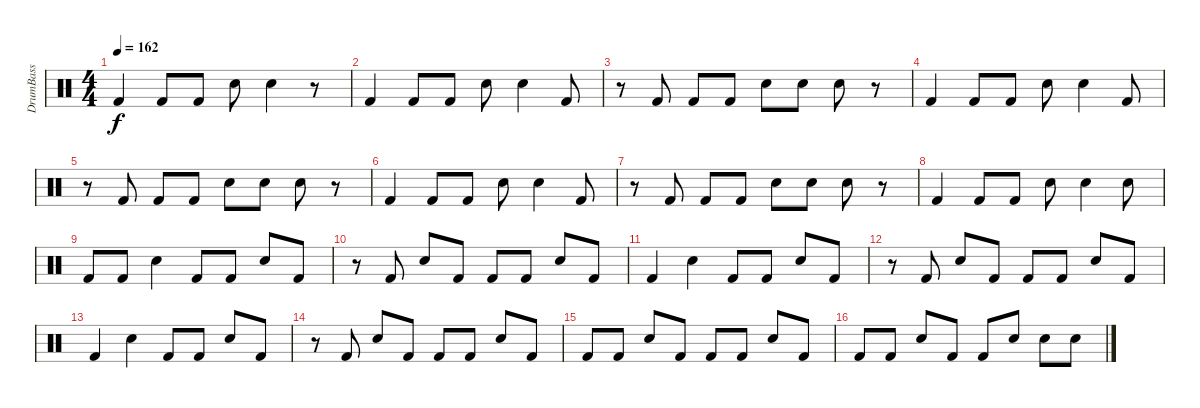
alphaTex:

\track ("DrumBass" "DrumBass") {instrument percussion}
\staff {score}
\articulation defaults
\ts (4 4)
\tempo 162
\clef neutral
\ks c "Kick (hit) 2".4{dy f} "Kick (hit) 2".8 "Kick (hit) 2".8 "Snare (hit) 2".8 "Snare (hit) 2".4
r.8 |
"Kick (hit) 2".4 "Kick (hit) 2".8 "Kick (hit) 2".8 "Snare (hit) 2".8 "Snare (hit) 2".4 "Kick (hit) 2".8 |
r.8 "Kick (hit) 2".8 "Kick (hit) 2".8 "Kick (hit) 2".8 "Snare (hit) 2".8 "Snare (hit) 2".8 "Snare (hit) 2".8 r.8 |
"Kick (hit) 2".4 "Kick (hit) 2".8 "Kick (hit) 2".8 "Snare (hit) 2".8 "Snare (hit) 2".4 "Kick (hit) 2".8 |
r.8 "Kick (hit) 2".8 "Kick (hit) 2".8 "Kick (hit) 2".8 "Snare (hit) 2".8 "Snare (hit) 2".8 "Snare (hit) 2".8 r.8 |
"Kick (hit) 2".4 "Kick (hit) 2".8 "Kick (hit) 2".8 "Snare (hit) 2".8 "Snare (hit) 2".4 "Kick (hit) 2".8 |
r.8 "Kick (hit) 2".8 "Kick (hit) 2".8 "Kick (hit) 2".8 "Snare (hit) 2".8 "Snare (hit) 2".8 "Snare (hit) 2".8 r.8 |
"Kick (hit) 2".4 "Kick (hit) 2".8 "Kick (hit) 2".8 "Snare (hit) 2"{tr (38 16)}.8 "Snare (hit) 2"{tr (38 16)}.4 "Snare (hit) 2"{tr (38 16)}.8 |
"Kick (hit) 2".8 "Kick (hit) 2".8 "Snare (hit) 2".4 "Kick (hit) 2".8 "Kick (hit) 2".8 "Snare (hit) 2".8 "Kick (hit) 2".8 |
r.8 "Kick (hit) 2".8 "Snare (hit) 2".8 "Kick (hit) 2".8 "Kick (hit) 2".8 "Kick (hit) 2".8 "Snare (hit) 2".8 "Kick (hit) 2".8 |
"Kick (hit) 2".4 "Snare (hit) 2".4 "Kick (hit) 2".8 "Kick (hit) 2".8 "Snare (hit) 2".8 "Kick (hit) 2".8 |
r.8 "Kick (hit) 2".8 "Snare (hit) 2".8 "Kick (hit) 2".8 "Kick (hit) 2".8 "Kick (hit) 2".8 "Snare (hit) 2".8 "Kick (hit) 2".8 |
"Kick (hit) 2".4 "Snare (hit) 2".4 "Kick (hit) 2".8 "Kick (hit) 2".8 "Snare (hit) 2".8 "Kick (hit) 2".8 |
r.8 "Kick (hit) 2".8 "Snare (hit) 2".8 "Kick (hit) 2".8 "Kick (hit) 2".8 "Kick (hit) 2".8 "Snare (hit) 2".8 "Kick (hit) 2".8 |
"Kick (hit) 2".8 "Kick (hit) 2".8 "Snare (hit) 2".8 "Kick (hit) 2".8 "Kick (hit) 2".8 "Kick (hit) 2".8 "Snare (hit) 2".8 "Kick (hit) 2".8 |
"Kick (hit) 2".8 "Kick (hit) 2".8 "Snare (hit) 2".8 "Kick (hit) 2".8 "Kick (hit) 2".8 "Snare (hit) 2"{tr (38 16)}.8 "Snare (hit) 2"{tr (38 16)}.8 "Snare (hit) 2"{tr (38 16)}.8
